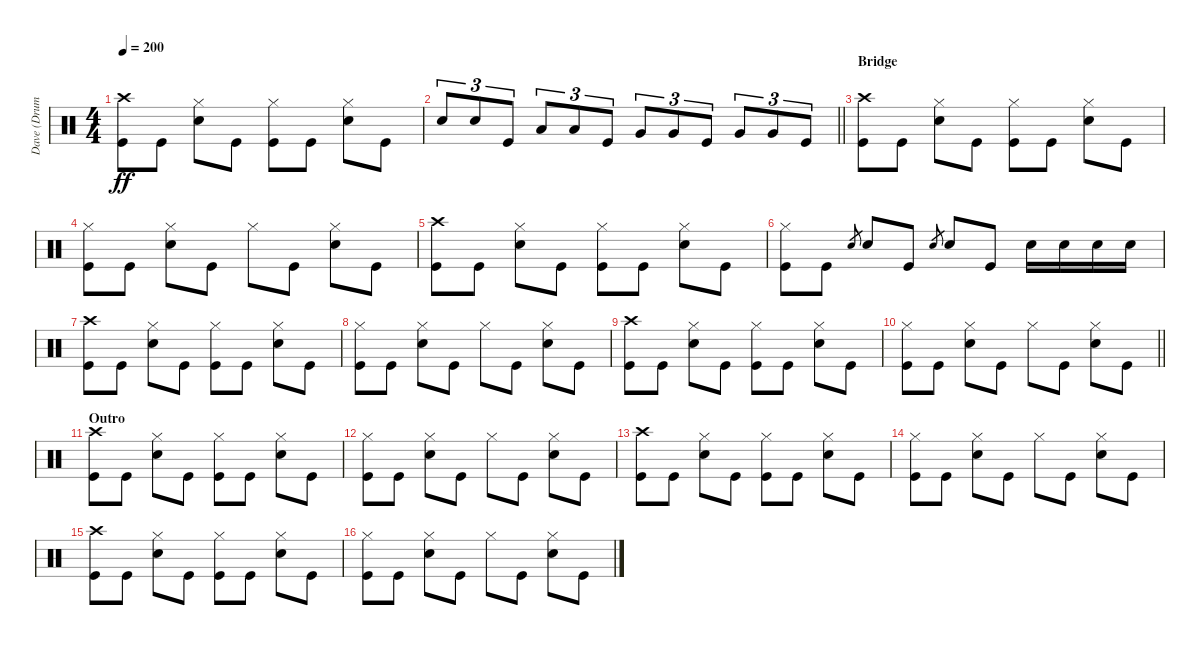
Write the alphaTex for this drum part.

\track ("Dave (Drums)" "Dave (Drum") {instrument percussion}
\staff {score}
\articulation defaults
\ts (4 4)
\tempo 200
\clef neutral
\ks c
("Crash high (hit)" "Kick (hit)").8{dy ff} "Kick (hit)".8 ("Hi-Hat (closed)" "Snare (hit) 2").8 "Kick (hit)".8 ("Hi-Hat (closed)" "Kick (hit)").8 "Kick (hit)".8 ("Hi-Hat (closed)" "Snare (hit) 2").8 "Kick (hit)".8 |
\barLineRight lightlight "Snare (hit) 2".8{tu (3 2)} "Snare (hit) 2".8{tu (3 2)} "Kick (hit)".8{tu (3 2)} "Low Tom (hit)".8{tu (3 2)} "Low Tom (hit)".8{tu (3 2)} "Kick (hit)".8{tu (3 2)} "Very Low Tom (hit)".8{tu (3 2)} "Very Low Tom (hit)".8{tu (3 2)} "Kick (hit)".8{tu (3 2)} "Very Low Tom (hit)".8{tu (3 2)} "Very Low Tom (hit)".8{tu (3 2)} "Kick (hit)".8{tu (3 2)}
|
\section ("" "Bridge")
("Crash high (hit)" "Kick (hit)").8 "Kick (hit)".8 ("Hi-Hat (closed)" "Snare (hit) 2").8 "Kick (hit)".8 ("Hi-Hat (closed)" "Kick (hit)").8 "Kick (hit)".8 ("Hi-Hat (closed)" "Snare (hit) 2").8 "Kick (hit)".8 |
("Hi-Hat (closed)" "Kick (hit)").8 "Kick (hit)".8 ("Hi-Hat (closed)" "Snare (hit) 2").8 "Kick (hit)".8 "Hi-Hat (closed)".8 "Kick (hit)".8 ("Hi-Hat (closed)" "Snare (hit) 2").8 "Kick (hit)".8 |
("Crash high (hit)" "Kick (hit)").8 "Kick (hit)".8 ("Hi-Hat (closed)" "Snare (hit) 2").8 "Kick (hit)".8 ("Hi-Hat (closed)" "Kick (hit)").8 "Kick (hit)".8 ("Hi-Hat (closed)" "Snare (hit) 2").8 "Kick (hit)".8 |
("Hi-Hat (closed)" "Kick (hit)").8 "Kick (hit)".8 "Snare (hit) 2".8{gr} "Snare (hit) 2".8 "Kick (hit)".8 "Snare (hit) 2".8{gr} "Snare (hit) 2".8 "Kick (hit)".8 "Snare (hit) 2".16 "Snare (hit) 2".16 "Snare (hit) 2".16 "Snare (hit) 2".16 |
("Crash high (hit)" "Kick (hit)").8 "Kick (hit)".8 ("Hi-Hat (closed)" "Snare (hit) 2").8 "Kick (hit)".8 ("Hi-Hat (closed)" "Kick (hit)").8 "Kick (hit)".8 ("Hi-Hat (closed)" "Snare (hit) 2").8 "Kick (hit)".8 |
("Hi-Hat (closed)" "Kick (hit)").8 "Kick (hit)".8 ("Hi-Hat (closed)" "Snare (hit) 2").8 "Kick (hit)".8 "Hi-Hat (closed)".8 "Kick (hit)".8 ("Hi-Hat (closed)" "Snare (hit) 2").8 "Kick (hit)".8 |
("Crash high (hit)" "Kick (hit)").8 "Kick (hit)".8 ("Hi-Hat (closed)" "Snare (hit) 2").8 "Kick (hit)".8 ("Hi-Hat (closed)" "Kick (hit)").8 "Kick (hit)".8 ("Hi-Hat (closed)" "Snare (hit) 2").8 "Kick (hit)".8 |
\barLineRight lightlight
("Hi-Hat (closed)" "Kick (hit)").8 "Kick (hit)".8 ("Hi-Hat (closed)" "Snare (hit) 2").8 "Kick (hit)".8 "Hi-Hat (closed)".8 "Kick (hit)".8 ("Hi-Hat (closed)" "Snare (hit) 2").8 "Kick (hit)".8 |
\section ("" "Outro")
("Crash high (hit)" "Kick (hit)").8 "Kick (hit)".8 ("Hi-Hat (closed)" "Snare (hit) 2").8 "Kick (hit)".8 ("Hi-Hat (closed)" "Kick (hit)").8 "Kick (hit)".8 ("Hi-Hat (closed)" "Snare (hit) 2").8 "Kick (hit)".8 |
("Hi-Hat (closed)" "Kick (hit)").8 "Kick (hit)".8 ("Hi-Hat (closed)" "Snare (hit) 2").8 "Kick (hit)".8 "Hi-Hat (closed)".8 "Kick (hit)".8 ("Hi-Hat (closed)" "Snare (hit) 2").8 "Kick (hit)".8 |
("Crash high (hit)" "Kick (hit)").8 "Kick (hit)".8 ("Hi-Hat (closed)" "Snare (hit) 2").8 "Kick (hit)".8 ("Hi-Hat (closed)" "Kick (hit)").8 "Kick (hit)".8 ("Hi-Hat (closed)" "Snare (hit) 2").8 "Kick (hit)".8 |
("Hi-Hat (closed)" "Kick (hit)").8 "Kick (hit)".8 ("Hi-Hat (closed)" "Snare (hit) 2").8 "Kick (hit)".8 "Hi-Hat (closed)".8 "Kick (hit)".8 ("Hi-Hat (closed)" "Snare (hit) 2").8 "Kick (hit)".8 |
("Crash high (hit)" "Kick (hit)").8 "Kick (hit)".8 ("Hi-Hat (closed)" "Snare (hit) 2").8 "Kick (hit)".8 ("Hi-Hat (closed)" "Kick (hit)").8 "Kick (hit)".8 ("Hi-Hat (closed)" "Snare (hit) 2").8 "Kick (hit)".8 |
("Hi-Hat (closed)" "Kick (hit)").8 "Kick (hit)".8 ("Hi-Hat (closed)" "Snare (hit) 2").8 "Kick (hit)".8 "Hi-Hat (closed)".8 "Kick (hit)".8 ("Hi-Hat (closed)" "Snare (hit) 2").8 "Kick (hit)".8
